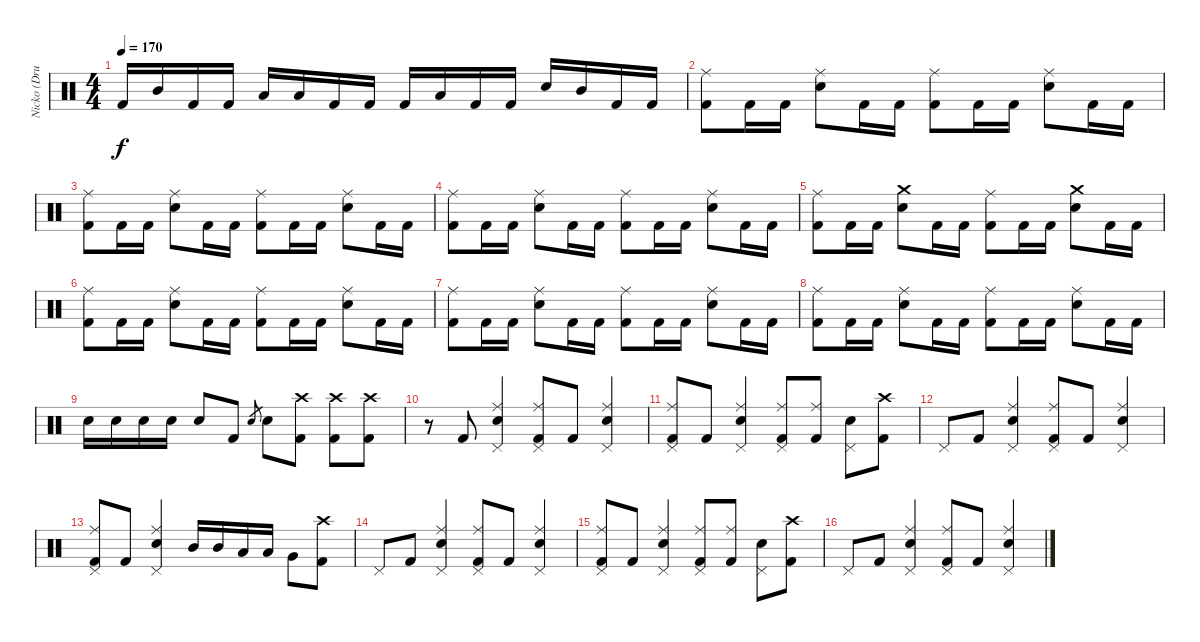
\track ("Nicko (Drums)" "Nicko (Dru") {instrument percussion}
\staff {score}
\articulation defaults
\ts (4 4)
\tempo 170
\clef neutral
\ks c "Kick (hit) 2".16{dy f} "Mid Tom (hit)".16 "Kick (hit) 2".16 "Kick (hit) 2".16 "Low Tom (hit)".16 "Low Tom (hit)".16 "Kick (hit) 2".16 "Kick (hit) 2".16 "Kick (hit) 2".16 "Low Floor Tom (hit)".16 "Kick (hit) 2".16 "Kick (hit) 2".16 "Snare (hit) 2".16 "Mid Tom (hit)".16 "Kick (hit) 2".16 "Kick (hit) 2".16
|
("Ride (middle)" "Kick (hit) 2").8 "Kick (hit) 2".16 "Kick (hit) 2".16 ("Ride (middle)" "Snare (hit) 2").8 "Kick (hit) 2".16 "Kick (hit) 2".16 ("Ride (middle)" "Kick (hit) 2").8 "Kick (hit) 2".16 "Kick (hit) 2".16 ("Ride (middle)" "Snare (hit) 2").8 "Kick (hit) 2".16 "Kick (hit) 2".16 |
("Ride (middle)" "Kick (hit) 2").8 "Kick (hit) 2".16 "Kick (hit) 2".16 ("Ride (middle)" "Snare (hit) 2").8 "Kick (hit) 2".16 "Kick (hit) 2".16 ("Ride (middle)" "Kick (hit) 2").8 "Kick (hit) 2".16 "Kick (hit) 2".16 ("Ride (middle)" "Snare (hit) 2").8 "Kick (hit) 2".16 "Kick (hit) 2".16 |
("Ride (middle)" "Kick (hit) 2").8 "Kick (hit) 2".16 "Kick (hit) 2".16 ("Ride (middle)" "Snare (hit) 2").8 "Kick (hit) 2".16 "Kick (hit) 2".16 ("Ride (middle)" "Kick (hit) 2").8 "Kick (hit) 2".16 "Kick (hit) 2".16 ("Ride (middle)" "Snare (hit) 2").8 "Kick (hit) 2".16 "Kick (hit) 2".16 |
("Ride (middle)" "Kick (hit) 2").8 "Kick (hit) 2".16 "Kick (hit) 2".16 ("Crash medium (hit)" "Snare (hit) 2").8 "Kick (hit) 2".16 "Kick (hit) 2".16 ("Ride (middle)" "Kick (hit) 2").8 "Kick (hit) 2".16 "Kick (hit) 2".16 ("Crash medium (hit)" "Snare (hit) 2").8 "Kick (hit) 2".16 "Kick (hit) 2".16 |
("Ride (middle)" "Kick (hit) 2").8 "Kick (hit) 2".16 "Kick (hit) 2".16 ("Ride (middle)" "Snare (hit) 2").8 "Kick (hit) 2".16 "Kick (hit) 2".16 ("Ride (middle)" "Kick (hit) 2").8 "Kick (hit) 2".16 "Kick (hit) 2".16 ("Ride (middle)" "Snare (hit) 2").8 "Kick (hit) 2".16 "Kick (hit) 2".16 |
("Ride (middle)" "Kick (hit) 2").8 "Kick (hit) 2".16 "Kick (hit) 2".16 ("Ride (middle)" "Snare (hit) 2").8 "Kick (hit) 2".16 "Kick (hit) 2".16 ("Ride (middle)" "Kick (hit) 2").8 "Kick (hit) 2".16 "Kick (hit) 2".16 ("Ride (middle)" "Snare (hit) 2").8 "Kick (hit) 2".16 "Kick (hit) 2".16 |
("Ride (middle)" "Kick (hit) 2").8 "Kick (hit) 2".16 "Kick (hit) 2".16 ("Ride (middle)" "Snare (hit) 2").8 "Kick (hit) 2".16 "Kick (hit) 2".16 ("Ride (middle)" "Kick (hit) 2").8 "Kick (hit) 2".16 "Kick (hit) 2".16 ("Ride (middle)" "Snare (hit) 2").8 "Kick (hit) 2".16 "Kick (hit) 2".16 |
"Snare (hit) 2".16 "Snare (hit) 2".16 "Snare (hit) 2".16 "Snare (hit) 2".16 "Snare (hit) 2".8 "Kick (hit) 2".8 "Snare (hit) 2".8{gr} "Snare (hit) 2".8 ("Crash high (hit)" "Kick (hit) 2").8 ("Crash high (hit)" "Kick (hit) 2").8 ("Crash high (hit)" "Kick (hit) 2").8 |
r.8 "Kick (hit) 2".8 ("Ride (middle)" "Snare (hit) 2" "Pedal Hi-Hat (hit)").4 ("Ride (middle)" "Pedal Hi-Hat (hit)" "Kick (hit) 2").8 "Kick (hit) 2".8 ("Ride (middle)" "Snare (hit) 2" "Pedal Hi-Hat (hit)").4 |
("Ride (middle)" "Pedal Hi-Hat (hit)" "Kick (hit) 2").8 "Kick (hit) 2".8 ("Ride (middle)" "Snare (hit) 2" "Pedal Hi-Hat (hit)").4 ("Ride (middle)" "Pedal Hi-Hat (hit)" "Kick (hit) 2").8 ("Ride (middle)" "Kick (hit) 2").8 ("Snare (hit) 2" "Pedal Hi-Hat (hit)").8 ("Crash high (hit)" "Kick (hit) 2").8 |
"Pedal Hi-Hat (hit)".8 "Kick (hit) 2".8 ("Ride (middle)" "Snare (hit) 2" "Pedal Hi-Hat (hit)").4 ("Ride (middle)" "Pedal Hi-Hat (hit)" "Kick (hit) 2").8 "Kick (hit) 2".8 ("Ride (middle)" "Snare (hit) 2" "Pedal Hi-Hat (hit)").4 |
("Ride (middle)" "Pedal Hi-Hat (hit)" "Kick (hit) 2").8 "Kick (hit) 2".8 ("Ride (middle)" "Snare (hit) 2" "Pedal Hi-Hat (hit)").4 "Mid Tom (hit)".16 "Mid Tom (hit)".16 "Low Tom (hit)".16 "Low Tom (hit)".16 "Very Low Tom (hit)".8 ("Crash high (hit)" "Kick (hit) 2").8 |
"Pedal Hi-Hat (hit)".8 "Kick (hit) 2".8 ("Ride (middle)" "Snare (hit) 2" "Pedal Hi-Hat (hit)").4 ("Ride (middle)" "Pedal Hi-Hat (hit)" "Kick (hit) 2").8 "Kick (hit) 2".8 ("Ride (middle)" "Snare (hit) 2" "Pedal Hi-Hat (hit)").4 |
("Ride (middle)" "Pedal Hi-Hat (hit)" "Kick (hit) 2").8 "Kick (hit) 2".8 ("Ride (middle)" "Snare (hit) 2" "Pedal Hi-Hat (hit)").4 ("Ride (middle)" "Pedal Hi-Hat (hit)" "Kick (hit) 2").8 ("Ride (middle)" "Kick (hit) 2").8 ("Snare (hit) 2" "Pedal Hi-Hat (hit)").8 ("Crash high (hit)" "Kick (hit) 2").8 |
"Pedal Hi-Hat (hit)".8 "Kick (hit) 2".8 ("Ride (middle)" "Snare (hit) 2" "Pedal Hi-Hat (hit)").4 ("Ride (middle)" "Pedal Hi-Hat (hit)" "Kick (hit) 2").8 "Kick (hit) 2".8 ("Ride (middle)" "Snare (hit) 2" "Pedal Hi-Hat (hit)").4
